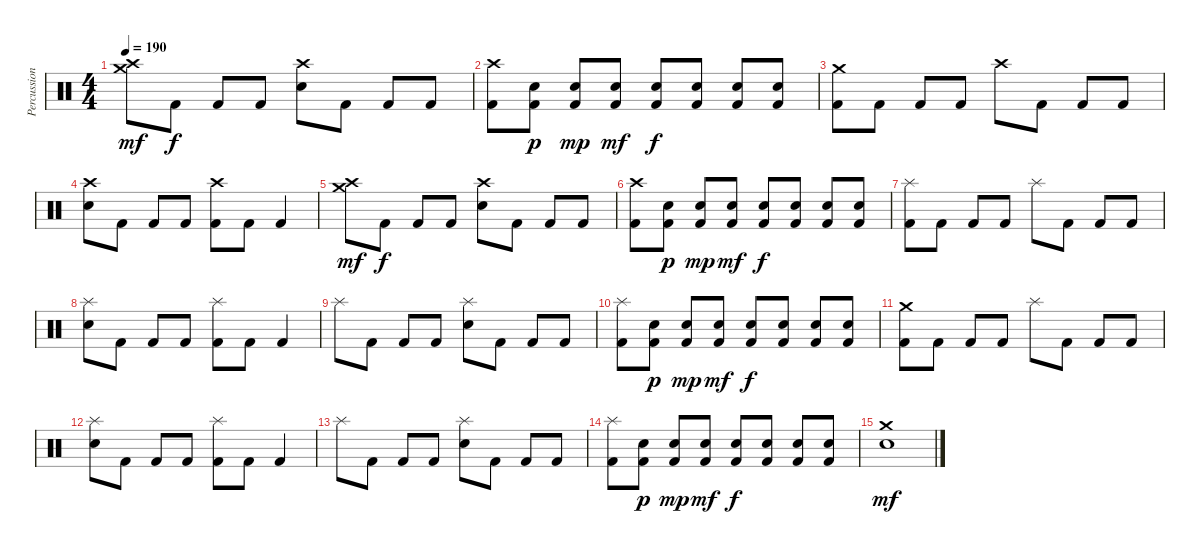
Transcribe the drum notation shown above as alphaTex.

\track ("Percussions" "Percussion") {instrument percussion}
\staff {score}
\articulation defaults
\ts (4 4)
\tempo 190
\clef neutral
\ks c
("Crash medium (hit)" "Crash high (hit)").8{dy mf} "Kick (hit) 2".8{dy f} "Kick (hit) 2".8 "Kick (hit) 2".8 ("Crash high (hit)" "Electric Snare (hit)").8 "Kick (hit) 2".8 "Kick (hit) 2".8 "Kick (hit) 2".8 |
("Crash high (hit)" "Kick (hit) 2").8 ("Electric Snare (hit)" "Kick (hit) 2").8{dy p} ("Electric Snare (hit)" "Kick (hit) 2").8{dy mp} ("Electric Snare (hit)" "Kick (hit) 2").8{dy mf} ("Electric Snare (hit)" "Kick (hit) 2").8{dy f} ("Electric Snare (hit)" "Kick (hit) 2").8 ("Electric Snare (hit)" "Kick (hit) 2").8 ("Electric Snare (hit)" "Kick (hit) 2").8 |
("Crash medium (hit)" "Kick (hit) 2").8 "Kick (hit) 2".8 "Kick (hit) 2".8 "Kick (hit) 2".8 "Crash high (hit)".8 "Kick (hit) 2".8 "Kick (hit) 2".8 "Kick (hit) 2".8 |
("Crash high (hit)" "Electric Snare (hit)").8 "Kick (hit) 2".8 "Kick (hit) 2".8 "Kick (hit) 2".8 ("Crash high (hit)" "Kick (hit) 2").8 "Kick (hit) 2".8 "Kick (hit) 2".4 |
("Crash medium (hit)" "Crash high (hit)").8{dy mf} "Kick (hit) 2".8{dy f} "Kick (hit) 2".8 "Kick (hit) 2".8 ("Crash high (hit)" "Electric Snare (hit)").8 "Kick (hit) 2".8 "Kick (hit) 2".8 "Kick (hit) 2".8 |
("Crash high (hit)" "Kick (hit) 2").8 ("Electric Snare (hit)" "Kick (hit) 2").8{dy p} ("Electric Snare (hit)" "Kick (hit) 2").8{dy mp} ("Electric Snare (hit)" "Kick (hit) 2").8{dy mf} ("Electric Snare (hit)" "Kick (hit) 2").8{dy f} ("Electric Snare (hit)" "Kick (hit) 2").8 ("Electric Snare (hit)" "Kick (hit) 2").8 ("Electric Snare (hit)" "Kick (hit) 2").8 |
("Splash (hit)" "Kick (hit) 2").8 "Kick (hit) 2".8 "Kick (hit) 2".8 "Kick (hit) 2".8 "Splash (hit)".8 "Kick (hit) 2".8 "Kick (hit) 2".8 "Kick (hit) 2".8 |
("Splash (hit)" "Electric Snare (hit)").8 "Kick (hit) 2".8 "Kick (hit) 2".8 "Kick (hit) 2".8 ("Splash (hit)" "Kick (hit) 2").8 "Kick (hit) 2".8 "Kick (hit) 2".4 |
"Splash (hit)".8 "Kick (hit) 2".8 "Kick (hit) 2".8 "Kick (hit) 2".8 ("Splash (hit)" "Electric Snare (hit)").8 "Kick (hit) 2".8 "Kick (hit) 2".8 "Kick (hit) 2".8 |
("Splash (hit)" "Kick (hit) 2").8 ("Electric Snare (hit)" "Kick (hit) 2").8{dy p} ("Electric Snare (hit)" "Kick (hit) 2").8{dy mp} ("Electric Snare (hit)" "Kick (hit) 2").8{dy mf} ("Electric Snare (hit)" "Kick (hit) 2").8{dy f} ("Electric Snare (hit)" "Kick (hit) 2").8 ("Electric Snare (hit)" "Kick (hit) 2").8 ("Electric Snare (hit)" "Kick (hit) 2").8 |
("Crash medium (hit)" "Kick (hit) 2").8 "Kick (hit) 2".8 "Kick (hit) 2".8 "Kick (hit) 2".8 "Splash (hit)".8 "Kick (hit) 2".8 "Kick (hit) 2".8 "Kick (hit) 2".8 |
("Splash (hit)" "Electric Snare (hit)").8 "Kick (hit) 2".8 "Kick (hit) 2".8 "Kick (hit) 2".8 ("Splash (hit)" "Kick (hit) 2").8 "Kick (hit) 2".8 "Kick (hit) 2".4 |
"Splash (hit)".8 "Kick (hit) 2".8 "Kick (hit) 2".8 "Kick (hit) 2".8 ("Splash (hit)" "Electric Snare (hit)").8 "Kick (hit) 2".8 "Kick (hit) 2".8 "Kick (hit) 2".8 |
("Splash (hit)" "Kick (hit) 2").8 ("Electric Snare (hit)" "Kick (hit) 2").8{dy p} ("Electric Snare (hit)" "Kick (hit) 2").8{dy mp} ("Electric Snare (hit)" "Kick (hit) 2").8{dy mf} ("Electric Snare (hit)" "Kick (hit) 2").8{dy f} ("Electric Snare (hit)" "Kick (hit) 2").8 ("Electric Snare (hit)" "Kick (hit) 2").8 ("Electric Snare (hit)" "Kick (hit) 2").8 |
("Crash medium (hit)" "Electric Snare (hit)").1{dy mf}
